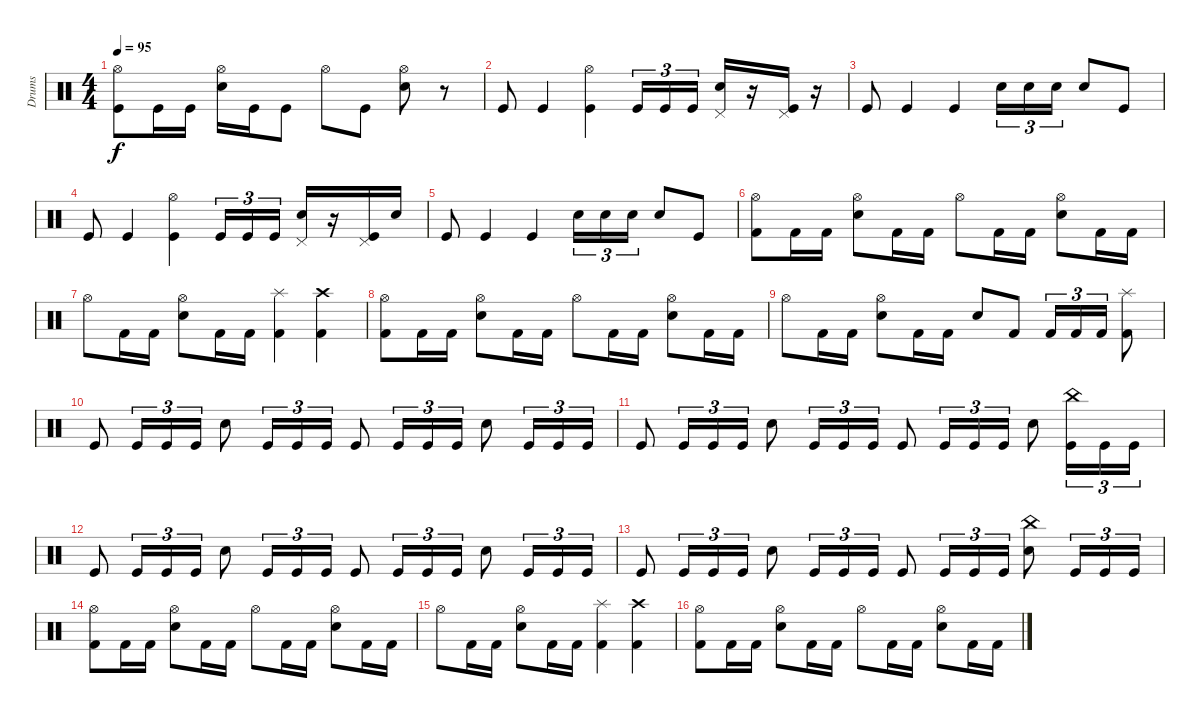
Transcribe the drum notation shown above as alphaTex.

\track ("Drums" "Drums") {instrument percussion}
\staff {score}
\articulation defaults
\ts (4 4)
\tempo 95
\clef neutral
\ks c
("Kick (hit)" "Hi-Hat (open)").8{dy f} "Kick (hit)".16 "Kick (hit)".16 ("Snare (hit) 2" "Hi-Hat (open)").16 "Kick (hit)".16 "Kick (hit)".8 "Hi-Hat (open)".8 "Kick (hit)".8 ("Snare (hit) 2" "Hi-Hat (open)").8 r.8 |
"Kick (hit)".8 "Kick (hit)".4 ("Kick (hit)" "Hi-Hat (open)").4 "Kick (hit)".16{tu (3 2)} "Kick (hit)".16{tu (3 2)} "Kick (hit)".16{tu (3 2)} ("Snare (hit) 2" "Pedal Hi-Hat (hit)").16 r.16 ("Kick (hit)" "Pedal Hi-Hat (hit)").16 r.16 |
"Kick (hit)".8 "Kick (hit)".4 "Kick (hit)".4 "Snare (hit) 2".16{tu (3 2)} "Snare (hit) 2".16{tu (3 2)} "Snare (hit) 2".16{tu (3 2)} "Snare (hit) 2".8 "Kick (hit)".8 |
"Kick (hit)".8 "Kick (hit)".4 ("Kick (hit)" "Hi-Hat (open)").4 "Kick (hit)".16{tu (3 2)} "Kick (hit)".16{tu (3 2)} "Kick (hit)".16{tu (3 2)} ("Snare (hit) 2" "Pedal Hi-Hat (hit)").16 r.16 ("Kick (hit)" "Pedal Hi-Hat (hit)").16 "Snare (hit) 2".16 |
"Kick (hit)".8 "Kick (hit)".4 "Kick (hit)".4 "Snare (hit) 2".16{tu (3 2)} "Snare (hit) 2".16{tu (3 2)} "Snare (hit) 2".16{tu (3 2)} "Snare (hit) 2".8 "Kick (hit)".8 |
("Kick (hit) 2" "Hi-Hat (open)").8 "Kick (hit) 2".16 "Kick (hit) 2".16 ("Snare (hit) 2" "Hi-Hat (open)").8 "Kick (hit) 2".16 "Kick (hit) 2".16 "Hi-Hat (open)".8 "Kick (hit) 2".16 "Kick (hit) 2".16 ("Snare (hit) 2" "Hi-Hat (open)").8 "Kick (hit) 2".16 "Kick (hit) 2".16 |
"Hi-Hat (open)".8 "Kick (hit) 2".16 "Kick (hit) 2".16 ("Snare (hit) 2" "Hi-Hat (open)").8 "Kick (hit) 2".16 "Kick (hit) 2".16 ("Kick (hit) 2" "Splash (hit)").4 ("Kick (hit) 2" "Crash high (hit)").4 |
("Kick (hit) 2" "Hi-Hat (open)").8 "Kick (hit) 2".16 "Kick (hit) 2".16 ("Snare (hit) 2" "Hi-Hat (open)").8 "Kick (hit) 2".16 "Kick (hit) 2".16 "Hi-Hat (open)".8 "Kick (hit) 2".16 "Kick (hit) 2".16 ("Snare (hit) 2" "Hi-Hat (open)").8 "Kick (hit) 2".16 "Kick (hit) 2".16 |
"Hi-Hat (open)".8 "Kick (hit) 2".16 "Kick (hit) 2".16 ("Snare (hit) 2" "Hi-Hat (open)").8 "Kick (hit) 2".16 "Kick (hit) 2".16 "Snare (hit) 2".8 "Kick (hit) 2".8 "Kick (hit) 2".16{tu (3 2)} "Kick (hit) 2".16{tu (3 2)} "Kick (hit) 2".16{tu (3 2)} ("Kick (hit) 2" "Splash (hit)").8 |
"Kick (hit)".8 "Kick (hit)".16{tu (3 2)} "Kick (hit)".16{tu (3 2)} "Kick (hit)".16{tu (3 2)} "Snare (hit) 2".8 "Kick (hit)".16{tu (3 2)} "Kick (hit)".16{tu (3 2)} "Kick (hit)".16{tu (3 2)} "Kick (hit)".8 "Kick (hit)".16{tu (3 2)} "Kick (hit)".16{tu (3 2)} "Kick (hit)".16{tu (3 2)} "Snare (hit) 2".8 "Kick (hit)".16{tu (3 2)} "Kick (hit)".16{tu (3 2)} "Kick (hit)".16{tu (3 2)} |
"Kick (hit)".8 "Kick (hit)".16{tu (3 2)} "Kick (hit)".16{tu (3 2)} "Kick (hit)".16{tu (3 2)} "Snare (hit) 2".8 "Kick (hit)".16{tu (3 2)} "Kick (hit)".16{tu (3 2)} "Kick (hit)".16{tu (3 2)} "Kick (hit)".8 "Kick (hit)".16{tu (3 2)} "Kick (hit)".16{tu (3 2)} "Kick (hit)".16{tu (3 2)} "Snare (hit) 2".8 ("Kick (hit)" "China (hit)").16{tu (3 2)} "Kick (hit)".16{tu (3 2)} "Kick (hit)".16{tu (3 2)} |
"Kick (hit)".8 "Kick (hit)".16{tu (3 2)} "Kick (hit)".16{tu (3 2)} "Kick (hit)".16{tu (3 2)} "Snare (hit) 2".8 "Kick (hit)".16{tu (3 2)} "Kick (hit)".16{tu (3 2)} "Kick (hit)".16{tu (3 2)} "Kick (hit)".8 "Kick (hit)".16{tu (3 2)} "Kick (hit)".16{tu (3 2)} "Kick (hit)".16{tu (3 2)} "Snare (hit) 2".8 "Kick (hit)".16{tu (3 2)} "Kick (hit)".16{tu (3 2)} "Kick (hit)".16{tu (3 2)} |
"Kick (hit)".8 "Kick (hit)".16{tu (3 2)} "Kick (hit)".16{tu (3 2)} "Kick (hit)".16{tu (3 2)} "Snare (hit) 2".8 "Kick (hit)".16{tu (3 2)} "Kick (hit)".16{tu (3 2)} "Kick (hit)".16{tu (3 2)} "Kick (hit)".8 "Kick (hit)".16{tu (3 2)} "Kick (hit)".16{tu (3 2)} "Kick (hit)".16{tu (3 2)} ("Snare (hit) 2" "China (hit)").8 "Kick (hit)".16{tu (3 2)} "Kick (hit)".16{tu (3 2)} "Kick (hit)".16{tu (3 2)} |
("Kick (hit) 2" "Hi-Hat (open)").8 "Kick (hit) 2".16 "Kick (hit) 2".16 ("Snare (hit) 2" "Hi-Hat (open)").8 "Kick (hit) 2".16 "Kick (hit) 2".16 "Hi-Hat (open)".8 "Kick (hit) 2".16 "Kick (hit) 2".16 ("Snare (hit) 2" "Hi-Hat (open)").8 "Kick (hit) 2".16 "Kick (hit) 2".16 |
"Hi-Hat (open)".8 "Kick (hit) 2".16 "Kick (hit) 2".16 ("Snare (hit) 2" "Hi-Hat (open)").8 "Kick (hit) 2".16 "Kick (hit) 2".16 ("Kick (hit) 2" "Splash (hit)").4 ("Kick (hit) 2" "Crash high (hit)").4 |
("Kick (hit) 2" "Hi-Hat (open)").8 "Kick (hit) 2".16 "Kick (hit) 2".16 ("Snare (hit) 2" "Hi-Hat (open)").8 "Kick (hit) 2".16 "Kick (hit) 2".16 "Hi-Hat (open)".8 "Kick (hit) 2".16 "Kick (hit) 2".16 ("Snare (hit) 2" "Hi-Hat (open)").8 "Kick (hit) 2".16 "Kick (hit) 2".16
